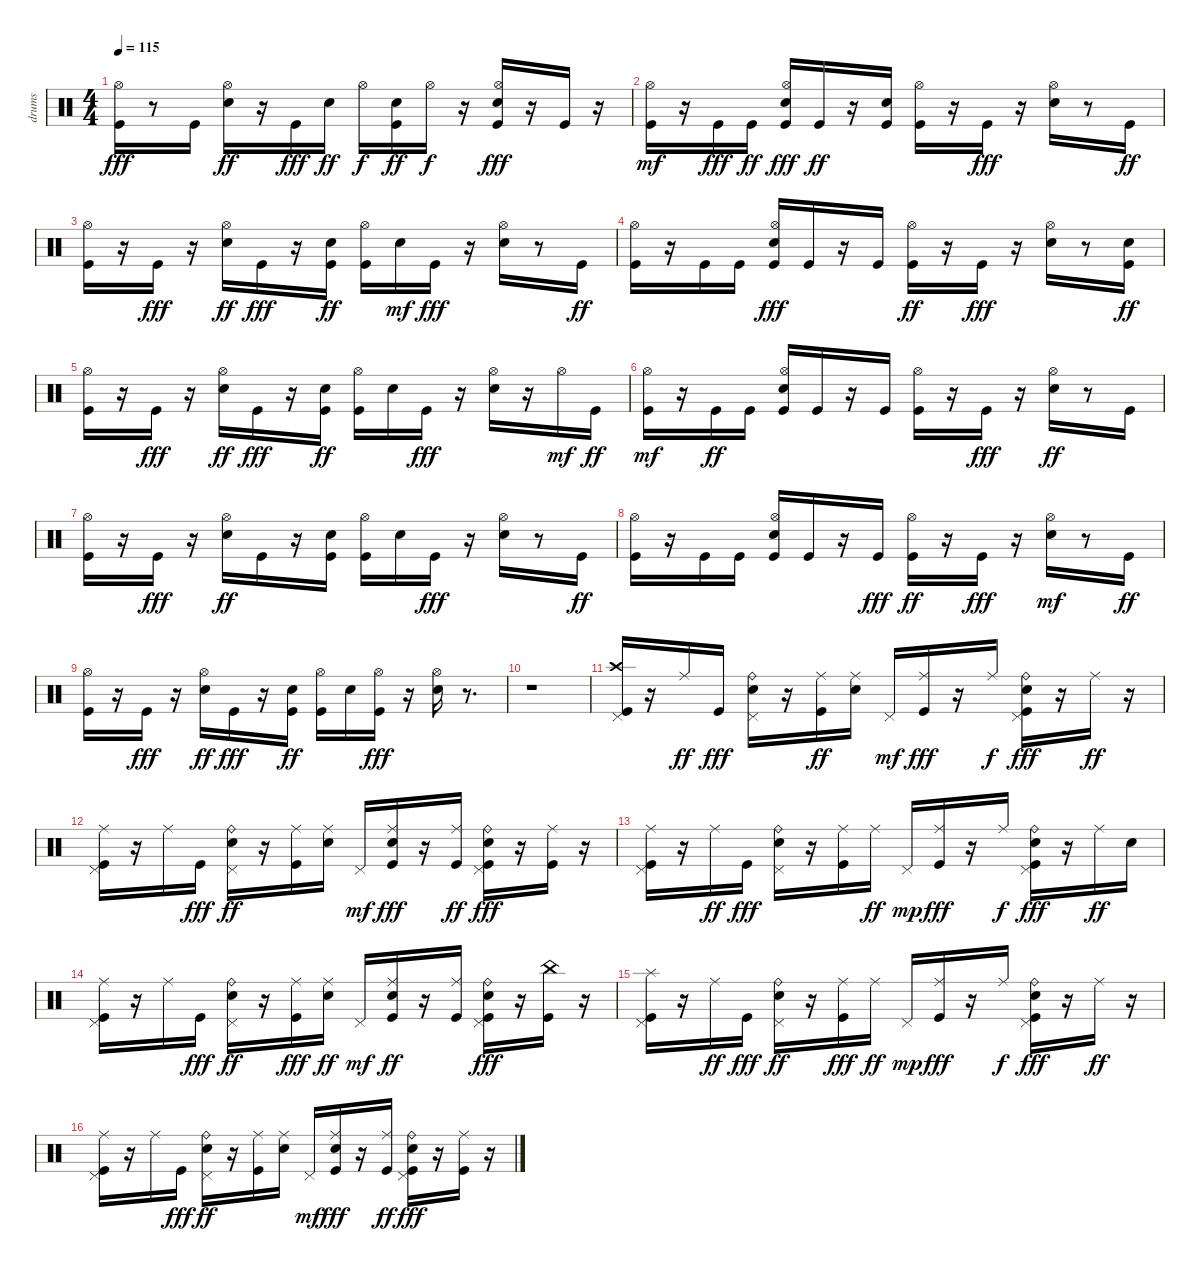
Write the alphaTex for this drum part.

\track ("drums" "drums") {instrument percussion}
\staff {score}
\articulation defaults
\ts (4 4)
\tempo 115
\clef neutral
\ks c
("Kick (hit)" "Hi-Hat (open)").16{dy fff} r.8 "Kick (hit)".16 ("Snare (hit) 2" "Hi-Hat (open)").16{dy ff} r.16 "Kick (hit)".16{dy fff} "Snare (hit) 2".16{dy ff} "Hi-Hat (open)".16{dy f} ("Kick (hit)" "Snare (hit) 2").16{dy ff} "Hi-Hat (open)".16{dy f} r.16 ("Kick (hit)" "Snare (hit) 2" "Hi-Hat (open)").16{dy fff} r.16 "Kick (hit)".16 r.16 |
("Kick (hit)" "Hi-Hat (open)").16{dy mf} r.16 "Kick (hit)".16{dy fff} "Kick (hit)".16{dy ff} ("Kick (hit)" "Snare (hit) 2" "Hi-Hat (open)").16{dy fff} "Kick (hit)".16{dy ff} r.16 ("Kick (hit)" "Snare (hit) 2").16 ("Kick (hit)" "Hi-Hat (open)").16 r.16 "Kick (hit)".16{dy fff} r.16 ("Snare (hit) 2" "Hi-Hat (open)").16 r.8 "Kick (hit)".16{dy ff} |
("Kick (hit)" "Hi-Hat (open)").16 r.16 "Kick (hit)".16{dy fff} r.16 ("Snare (hit) 2" "Hi-Hat (open)").16{dy ff} "Kick (hit)".16{dy fff} r.16 ("Kick (hit)" "Snare (hit) 2").16{dy ff} ("Kick (hit)" "Hi-Hat (open)").16 "Snare (hit) 2".16{dy mf} "Kick (hit)".16{dy fff} r.16 ("Snare (hit) 2" "Hi-Hat (open)").16 r.8 "Kick (hit)".16{dy ff} |
("Kick (hit)" "Hi-Hat (open)").16 r.16 "Kick (hit)".16 "Kick (hit)".16 ("Kick (hit)" "Snare (hit) 2" "Hi-Hat (open)").16{dy fff} "Kick (hit)".16 r.16 "Kick (hit)".16 ("Kick (hit)" "Hi-Hat (open)").16{dy ff} r.16 "Kick (hit)".16{dy fff} r.16 ("Snare (hit) 2" "Hi-Hat (open)").16 r.8 ("Kick (hit)" "Snare (hit) 2").16{dy ff} |
("Kick (hit)" "Hi-Hat (open)").16 r.16 "Kick (hit)".16{dy fff} r.16 ("Snare (hit) 2" "Hi-Hat (open)").16{dy ff} "Kick (hit)".16{dy fff} r.16 ("Kick (hit)" "Snare (hit) 2").16{dy ff} ("Kick (hit)" "Hi-Hat (open)").16 "Snare (hit) 2".16 "Kick (hit)".16{dy fff} r.16 ("Snare (hit) 2" "Hi-Hat (open)").16 r.16 "Hi-Hat (open)".16{dy mf} "Kick (hit)".16{dy ff} |
("Kick (hit)" "Hi-Hat (open)").16{dy mf} r.16 "Kick (hit)".16{dy ff} "Kick (hit)".16 ("Kick (hit)" "Snare (hit) 2" "Hi-Hat (open)").16 "Kick (hit)".16 r.16 "Kick (hit)".16 ("Kick (hit)" "Hi-Hat (open)").16 r.16 "Kick (hit)".16{dy fff} r.16 ("Snare (hit) 2" "Hi-Hat (open)").16{dy ff} r.8 "Kick (hit)".16 |
("Kick (hit)" "Hi-Hat (open)").16 r.16 "Kick (hit)".16{dy fff} r.16 ("Snare (hit) 2" "Hi-Hat (open)").16{dy ff} "Kick (hit)".16 r.16 ("Kick (hit)" "Snare (hit) 2").16 ("Kick (hit)" "Hi-Hat (open)").16 "Snare (hit) 2".16 "Kick (hit)".16{dy fff} r.16 ("Snare (hit) 2" "Hi-Hat (open)").16 r.8 "Kick (hit)".16{dy ff} |
("Kick (hit)" "Hi-Hat (open)").16 r.16 "Kick (hit)".16 "Kick (hit)".16 ("Kick (hit)" "Snare (hit) 2" "Hi-Hat (open)").16 "Kick (hit)".16 r.16 "Kick (hit)".16{dy fff} ("Kick (hit)" "Hi-Hat (open)").16{dy ff} r.16 "Kick (hit)".16{dy fff} r.16 ("Snare (hit) 2" "Hi-Hat (open)").16{dy mf} r.8 "Kick (hit)".16{dy ff} |
("Kick (hit)" "Hi-Hat (open)").16 r.16 "Kick (hit)".16{dy fff} r.16 ("Snare (hit) 2" "Hi-Hat (open)").16{dy ff} "Kick (hit)".16{dy fff} r.16 ("Kick (hit)" "Snare (hit) 2").16{dy ff} ("Kick (hit)" "Hi-Hat (open)").16 "Snare (hit) 2".16 ("Kick (hit)" "Hi-Hat (open)").16{dy fff} r.16 ("Hi-Hat (open)" "Snare (hit) 2").16 r.8{d} |
r.1 |
("Crash high (hit)" "Pedal Hi-Hat (hit)" "Kick (hit)").16 r.16 "Ride (middle)".16{dy ff} "Kick (hit)".16{dy fff} ("Pedal Hi-Hat (hit)" "Snare (hit) 2" "Ride (bell)").16 r.16 ("Kick (hit)" "Ride (middle)").16{dy ff} ("Snare (hit) 2" "Ride (middle)").16 "Pedal Hi-Hat (hit)".16{dy mf} ("Ride (middle)" "Kick (hit)").16{dy fff} r.16 "Ride (middle)".16{dy f} ("Pedal Hi-Hat (hit)" "Snare (hit) 2" "Ride (bell)" "Kick (hit)").16{dy fff} r.16 "Ride (middle)".16{dy ff} r.16 |
("Pedal Hi-Hat (hit)" "Kick (hit)" "Ride (middle)").16 r.16 "Ride (middle)".16 "Kick (hit)".16{dy fff} ("Pedal Hi-Hat (hit)" "Snare (hit) 2" "Ride (bell)").16{dy ff} r.16 ("Kick (hit)" "Ride (middle)").16 ("Ride (middle)" "Snare (hit) 2").16 "Pedal Hi-Hat (hit)".16{dy mf} ("Ride (middle)" "Snare (hit) 2" "Kick (hit)").16{dy fff} r.16 ("Ride (middle)" "Kick (hit)").16{dy ff} ("Pedal Hi-Hat (hit)" "Ride (bell)" "Snare (hit) 2" "Kick (hit)").16{dy fff} r.16 ("Ride (middle)" "Kick (hit)").16 r.16 |
("Pedal Hi-Hat (hit)" "Ride (middle)" "Kick (hit)").16 r.16 "Ride (middle)".16{dy ff} "Kick (hit)".16{dy fff} ("Pedal Hi-Hat (hit)" "Snare (hit) 2" "Ride (bell)").16 r.16 ("Ride (middle)" "Kick (hit)").16 "Ride (middle)".16{dy ff} "Pedal Hi-Hat (hit)".16{dy mp} ("Ride (middle)" "Kick (hit)").16{dy fff} r.16 "Ride (middle)".16{dy f} ("Pedal Hi-Hat (hit)" "Ride (bell)" "Snare (hit) 2" "Kick (hit)").16{dy fff} r.16 "Ride (middle)".16{dy ff} "Snare (hit) 2".16 |
("Pedal Hi-Hat (hit)" "Kick (hit)" "Ride (middle)").16 r.16 "Ride (middle)".16 "Kick (hit)".16{dy fff} ("Pedal Hi-Hat (hit)" "Ride (bell)" "Snare (hit) 2").16{dy ff} r.16 ("Kick (hit)" "Ride (middle)").16{dy fff} ("Ride (middle)" "Snare (hit) 2").16{dy ff} "Pedal Hi-Hat (hit)".16{dy mf} ("Ride (middle)" "Kick (hit)" "Snare (hit) 2").16{dy ff} r.16 ("Kick (hit)" "Ride (middle)").16 ("Pedal Hi-Hat (hit)" "Ride (bell)" "Snare (hit) 2" "Kick (hit)").16{dy fff} r.16 ("China (hit)" "Kick (hit)").16 r.16 |
("Splash (hit)" "Pedal Hi-Hat (hit)" "Kick (hit)").16 r.16 "Ride (middle)".16{dy ff} "Kick (hit)".16{dy fff} ("Pedal Hi-Hat (hit)" "Snare (hit) 2" "Ride (bell)").16{dy ff} r.16 ("Ride (middle)" "Kick (hit)").16{dy fff} "Ride (middle)".16{dy ff} "Pedal Hi-Hat (hit)".16{dy mp} ("Ride (middle)" "Kick (hit)").16{dy fff} r.16 "Ride (middle)".16{dy f} ("Pedal Hi-Hat (hit)" "Ride (bell)" "Snare (hit) 2" "Kick (hit)").16{dy fff} r.16 "Ride (middle)".16{dy ff} r.16 |
("Pedal Hi-Hat (hit)" "Kick (hit)" "Ride (middle)").16 r.16 "Ride (middle)".16 "Kick (hit)".16{dy fff} ("Pedal Hi-Hat (hit)" "Snare (hit) 2" "Ride (bell)").16{dy ff} r.16 ("Kick (hit)" "Ride (middle)").16 ("Ride (middle)" "Snare (hit) 2").16 "Pedal Hi-Hat (hit)".16{dy mf} ("Ride (middle)" "Snare (hit) 2" "Kick (hit)").16{dy fff} r.16 ("Kick (hit)" "Ride (middle)").16{dy ff} ("Pedal Hi-Hat (hit)" "Snare (hit) 2" "Ride (bell)" "Kick (hit)").16{dy fff} r.16 ("Ride (middle)" "Kick (hit)").16 r.16
